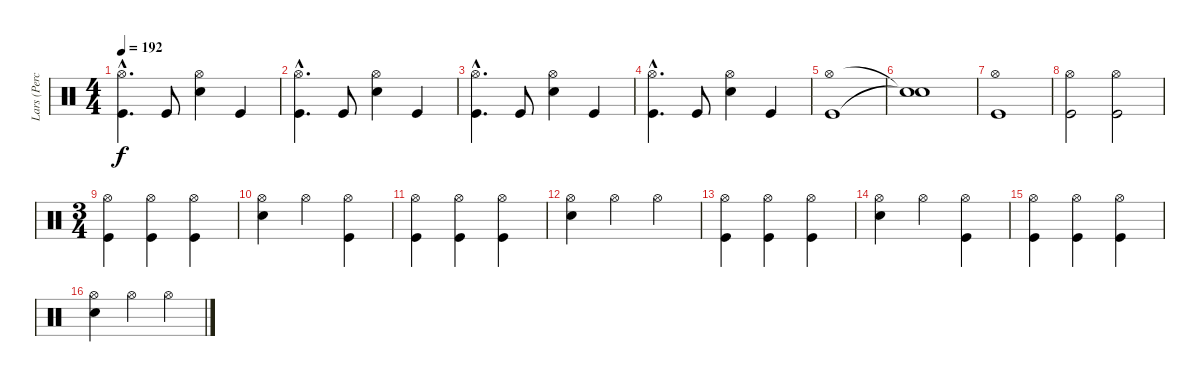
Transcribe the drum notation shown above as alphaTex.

\track ("Lars (Percussion)" "Lars (Perc") {instrument percussion}
\staff {score}
\articulation defaults
\ts (4 4)
\tempo 192
\clef neutral
\ks c
("Hi-Hat (open)"{hac} "Kick (hit)"{hac}).4{d dy f} "Kick (hit)".8 ("Hi-Hat (open)" "Snare (hit) 2").4 "Kick (hit)".4 |
("Hi-Hat (open)"{hac} "Kick (hit)"{hac}).4{d} "Kick (hit)".8 ("Hi-Hat (open)" "Snare (hit) 2").4 "Kick (hit)".4 |
("Hi-Hat (open)"{hac} "Kick (hit)"{hac}).4{d} "Kick (hit)".8 ("Hi-Hat (open)" "Snare (hit) 2").4 "Kick (hit)".4 |
("Hi-Hat (open)"{hac} "Kick (hit)"{hac}).4{d} "Kick (hit)".8 ("Hi-Hat (open)" "Snare (hit) 2").4 "Kick (hit)".4 |
("Hi-Hat (open)" "Kick (hit)").1 |
("Snare (hit)"{t} "Snare (hit)"{t}).1 |
("Hi-Hat (open)" "Kick (hit)").1 |
("Hi-Hat (open)" "Kick (hit)").2 ("Hi-Hat (open)" "Kick (hit)").2 |
\ts (3 4)
("Hi-Hat (open)" "Kick (hit)").4 ("Hi-Hat (open)" "Kick (hit)").4 ("Hi-Hat (open)" "Kick (hit)").4 |
("Hi-Hat (open)" "Electric Snare (hit)").4 "Hi-Hat (open)".4 ("Hi-Hat (open)" "Kick (hit)").4 |
("Hi-Hat (open)" "Kick (hit)").4 ("Hi-Hat (open)" "Kick (hit)").4 ("Hi-Hat (open)" "Kick (hit)").4 |
("Hi-Hat (open)" "Electric Snare (hit)").4 "Hi-Hat (open)".4 "Hi-Hat (open)".4 |
("Hi-Hat (open)" "Kick (hit)").4 ("Hi-Hat (open)" "Kick (hit)").4 ("Hi-Hat (open)" "Kick (hit)").4 |
("Hi-Hat (open)" "Electric Snare (hit)").4 "Hi-Hat (open)".4 ("Hi-Hat (open)" "Kick (hit)").4 |
("Hi-Hat (open)" "Kick (hit)").4 ("Hi-Hat (open)" "Kick (hit)").4 ("Hi-Hat (open)" "Kick (hit)").4 |
("Hi-Hat (open)" "Electric Snare (hit)").4 "Hi-Hat (open)".4 "Hi-Hat (open)".4
